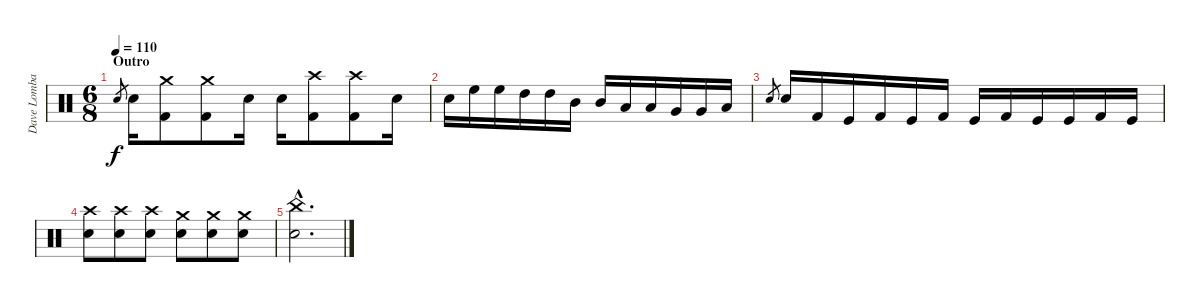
\track ("Dave Lombardo (drums)" "Dave Lomba") {instrument percussion}
\staff {score}
\articulation defaults
\ts (6 8)
\section ("" "Outro")
\tempo 110
\clef neutral
\ks c "Snare (hit) 2".8{gr dy f} "Snare (hit) 2".16
("Crash medium (hit)" "Kick (hit) 2").8 ("Crash medium (hit)" "Kick (hit) 2").8 "Snare (hit) 2".16 "Snare (hit) 2".16 ("Crash high (hit)" "Kick (hit) 2").8 ("Crash high (hit)" "Kick (hit) 2").8 "Snare (hit) 2".16 |
"Snare (hit) 2".16 "High Floor Tom (hit)".16 "High Floor Tom (hit)".16 "High Tom (hit)".16 "High Tom (hit)".16 "Mid Tom (hit)".16 "Mid Tom (hit)".16 "Low Tom (hit)".16 "Low Tom (hit)".16 "Very Low Tom (hit)".16 "Very Low Tom (hit)".16 "Low Floor Tom (hit)".16 |
"Snare (hit) 2".8{gr} "Snare (hit) 2".16 "Kick (hit) 2".16 "Kick (hit)".16 "Kick (hit) 2".16 "Kick (hit)".16 "Kick (hit) 2".16 "Kick (hit)".16 "Kick (hit) 2".16 "Kick (hit)".16 "Kick (hit)".16 "Kick (hit) 2".16 "Kick (hit)".16 |
("Crash high (hit)" "Snare (hit) 2").8 ("Crash high (hit)" "Snare (hit) 2").8 ("Crash high (hit)" "Snare (hit) 2").8 ("Crash medium (hit)" "Snare (hit) 2").8 ("Crash medium (hit)" "Snare (hit) 2").8 ("Crash medium (hit)" "Snare (hit) 2").8 |
("China (hit)"{hac} "Snare (hit) 2"{hac}).2{d}
